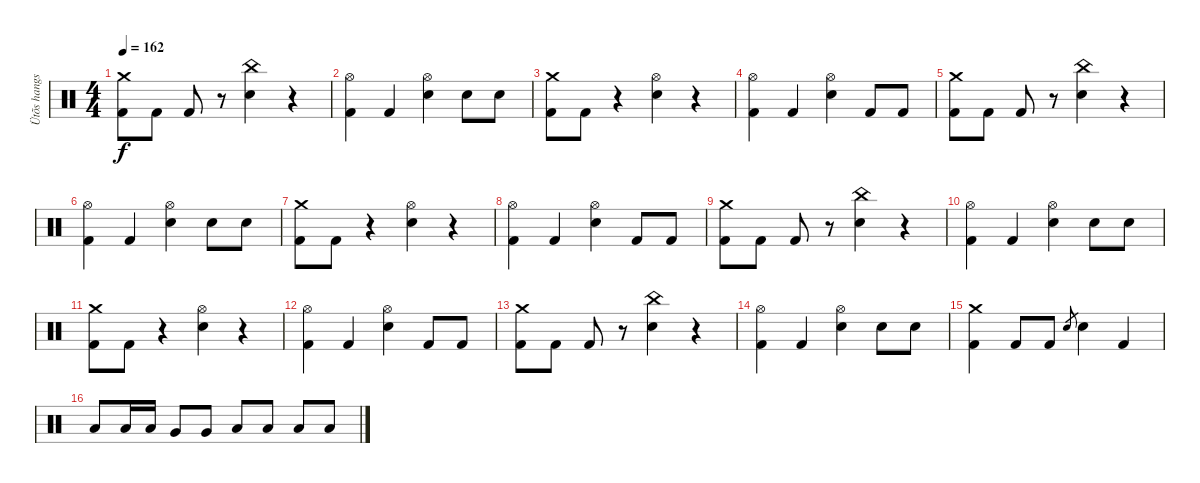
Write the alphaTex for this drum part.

\track ("Ütõs hangszer" "Ütõs hangs") {instrument percussion}
\staff {score}
\articulation defaults
\ts (4 4)
\tempo 162
\clef neutral
\ks c
("Crash medium (hit)" "Kick (hit) 2").8{dy f} "Kick (hit) 2".8 "Kick (hit) 2".8 r.8 ("China (hit)" "Electric Snare (hit)").4 r.4 |
("Hi-Hat (open)" "Kick (hit) 2").4 "Kick (hit) 2".4 ("Hi-Hat (open)" "Electric Snare (hit)").4 "Electric Snare (hit)".8 "Electric Snare (hit)".8 |
("Crash medium (hit)" "Kick (hit) 2").8 "Kick (hit) 2".8 r.4 ("Hi-Hat (open)" "Electric Snare (hit)").4 r.4 |
("Hi-Hat (open)" "Kick (hit) 2").4 "Kick (hit) 2".4 ("Hi-Hat (open)" "Electric Snare (hit)").4 "Kick (hit) 2".8 "Kick (hit) 2".8 |
("Crash medium (hit)" "Kick (hit) 2").8 "Kick (hit) 2".8 "Kick (hit) 2".8 r.8 ("China (hit)" "Electric Snare (hit)").4 r.4 |
("Hi-Hat (open)" "Kick (hit) 2").4 "Kick (hit) 2".4 ("Hi-Hat (open)" "Electric Snare (hit)").4 "Electric Snare (hit)".8 "Electric Snare (hit)".8 |
("Crash medium (hit)" "Kick (hit) 2").8 "Kick (hit) 2".8 r.4 ("Hi-Hat (open)" "Electric Snare (hit)").4 r.4 |
("Hi-Hat (open)" "Kick (hit) 2").4 "Kick (hit) 2".4 ("Hi-Hat (open)" "Electric Snare (hit)").4 "Kick (hit) 2".8 "Kick (hit) 2".8 |
("Crash medium (hit)" "Kick (hit) 2").8 "Kick (hit) 2".8 "Kick (hit) 2".8 r.8 ("China (hit)" "Electric Snare (hit)").4 r.4 |
("Hi-Hat (open)" "Kick (hit) 2").4 "Kick (hit) 2".4 ("Hi-Hat (open)" "Electric Snare (hit)").4 "Electric Snare (hit)".8 "Electric Snare (hit)".8 |
("Crash medium (hit)" "Kick (hit) 2").8 "Kick (hit) 2".8 r.4 ("Hi-Hat (open)" "Electric Snare (hit)").4 r.4 |
("Hi-Hat (open)" "Kick (hit) 2").4 "Kick (hit) 2".4 ("Hi-Hat (open)" "Electric Snare (hit)").4 "Kick (hit) 2".8 "Kick (hit) 2".8 |
("Crash medium (hit)" "Kick (hit) 2").8 "Kick (hit) 2".8 "Kick (hit) 2".8 r.8 ("China (hit)" "Electric Snare (hit)").4 r.4 |
("Hi-Hat (open)" "Kick (hit) 2").4 "Kick (hit) 2".4 ("Hi-Hat (open)" "Electric Snare (hit)").4 "Electric Snare (hit)".8 "Electric Snare (hit)".8 |
("Crash medium (hit)" "Kick (hit) 2").4 "Kick (hit) 2".8 "Kick (hit) 2".8 "Electric Snare (hit)".8{gr} "Electric Snare (hit)".4 "Kick (hit) 2".4 |
"Low Tom (hit)".8 "Low Tom (hit)".16 "Low Tom (hit)".16 "Very Low Tom (hit)".8 "Very Low Tom (hit)".8 "Low Floor Tom (hit)".8 "Low Floor Tom (hit)".8 "Low Floor Tom (hit)".8 "Low Floor Tom (hit)".8
